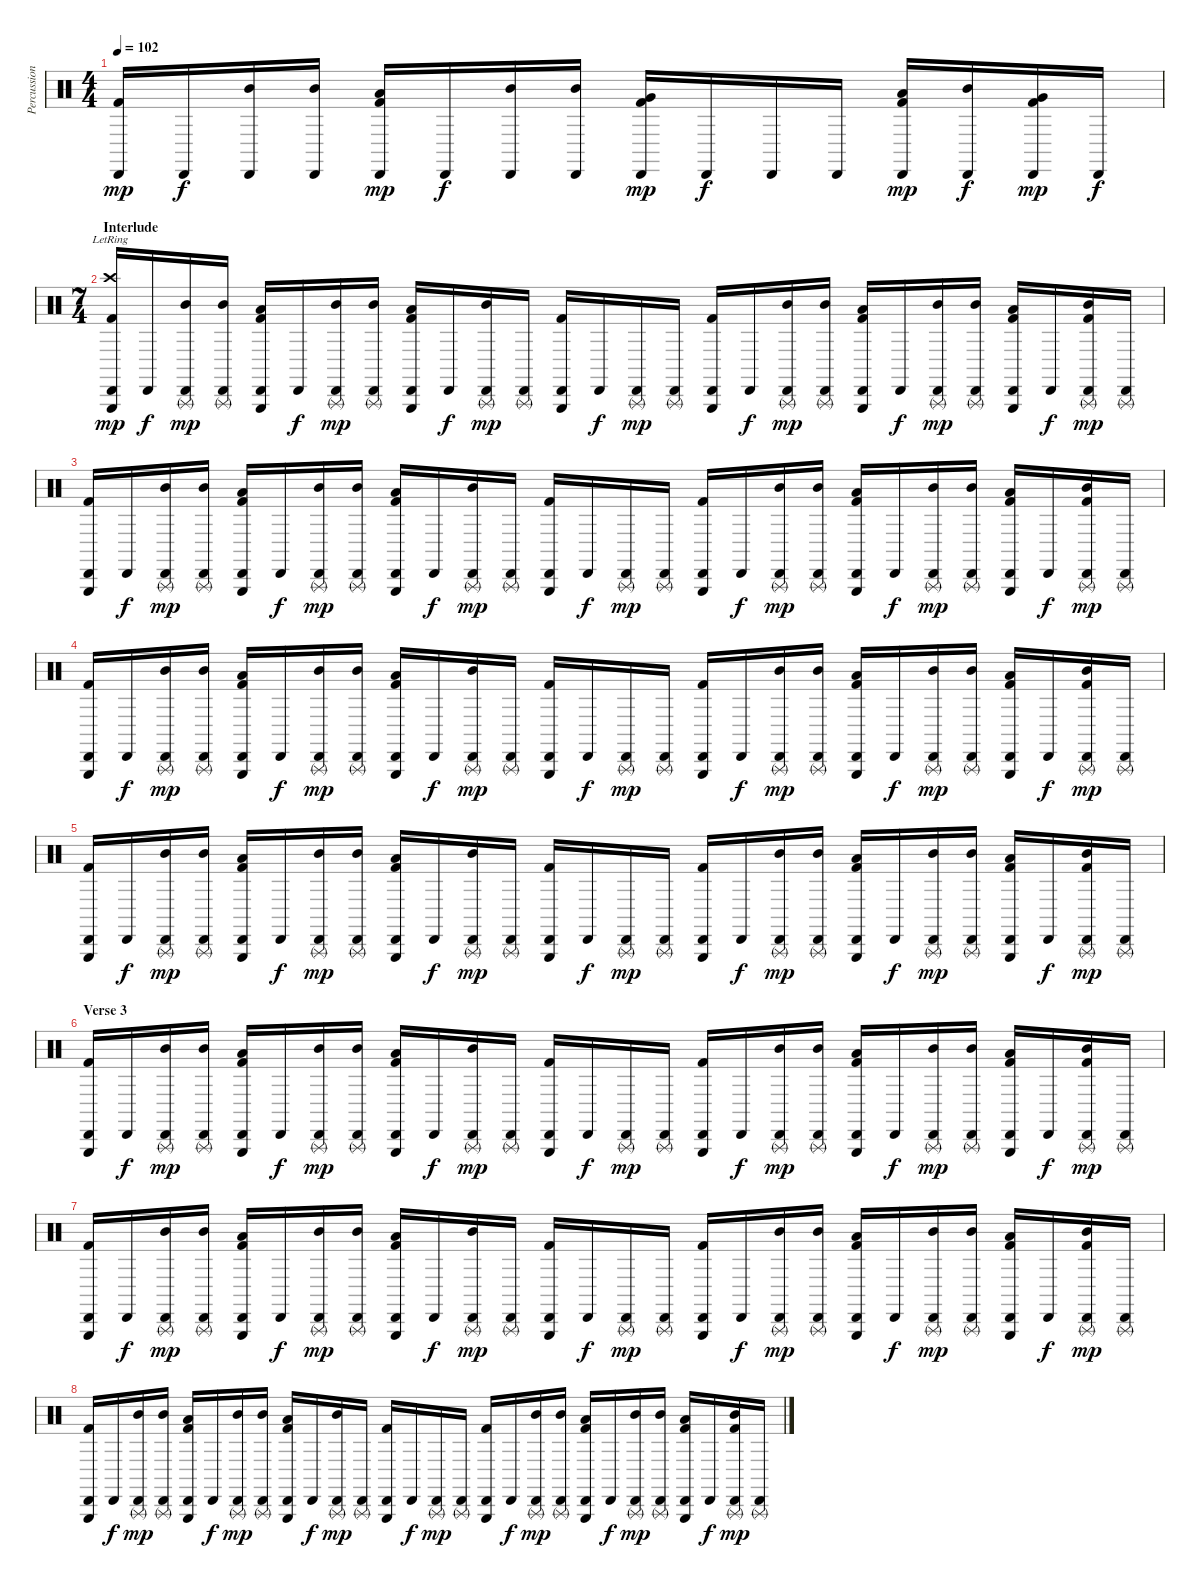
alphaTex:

\track ("Percussion" "Percussion") {instrument percussion}
\staff {score}
\articulation defaults
\ts (4 4)
\tempo 102
\clef neutral
\ks c
("Cabasa (hit)" "Kick (hit) 2").16{dy mp} "Cabasa (hit)".16{dy f} ("Cabasa (hit)" "Mid Tom (hit)").16 ("Cabasa (hit)" "Mid Tom (hit)").16 ("Cabasa (hit)" "Low Tom (hit)" "Kick (hit) 2").16{dy mp} "Cabasa (hit)".16{dy f} ("Cabasa (hit)" "Mid Tom (hit)").16 ("Cabasa (hit)" "Mid Tom (hit)").16 ("Cabasa (hit)" "Very Low Tom (hit)" "Kick (hit) 2").16{dy mp} "Cabasa (hit)".16{dy f} "Cabasa (hit)".16 "Cabasa (hit)".16 ("Cabasa (hit)" "Low Tom (hit)" "Kick (hit) 2").16{dy mp} ("Cabasa (hit)" "Mid Tom (hit)").16{dy f} ("Cabasa (hit)" "Very Low Tom (hit)" "Kick (hit) 2").16{dy mp} "Cabasa (hit)".16{dy f} |
\ts (7 4)
\section ("" "Interlude")
("Triangle (hit)" "Cabasa (hit)" "Crash high (hit)"{lr} "Kick (hit) 2").16{dy mp} "Cabasa (hit)".16{dy f} ("Triangle (rnute)" "Cabasa (hit)" "Mid Tom (hit)").16{dy mp} ("Triangle (rnute)" "Cabasa (hit)" "Mid Tom (hit)").16 ("Triangle (hit)" "Cabasa (hit)" "Low Tom (hit)" "Kick (hit) 2").16 "Cabasa (hit)".16{dy f} ("Triangle (rnute)" "Cabasa (hit)" "Mid Tom (hit)").16{dy mp} ("Triangle (rnute)" "Cabasa (hit)" "Mid Tom (hit)").16 ("Triangle (hit)" "Cabasa (hit)" "Low Tom (hit)" "Kick (hit) 2").16 "Cabasa (hit)".16{dy f} ("Triangle (rnute)" "Cabasa (hit)" "Mid Tom (hit)").16{dy mp} ("Triangle (rnute)" "Cabasa (hit)").16 ("Triangle (hit)" "Cabasa (hit)" "Kick (hit) 2").16 "Cabasa (hit)".16{dy f} ("Triangle (rnute)" "Cabasa (hit)").16{dy mp} ("Triangle (rnute)" "Cabasa (hit)").16 ("Triangle (hit)" "Cabasa (hit)" "Kick (hit) 2").16 "Cabasa (hit)".16{dy f} ("Triangle (rnute)" "Cabasa (hit)" "Mid Tom (hit)").16{dy mp} ("Triangle (rnute)" "Cabasa (hit)" "Mid Tom (hit)").16 ("Triangle (hit)" "Cabasa (hit)" "Low Tom (hit)" "Kick (hit) 2").16 "Cabasa (hit)".16{dy f} ("Triangle (rnute)" "Cabasa (hit)" "Mid Tom (hit)").16{dy mp} ("Triangle (rnute)" "Cabasa (hit)" "Mid Tom (hit)").16 ("Triangle (hit)" "Cabasa (hit)" "Low Tom (hit)" "Kick (hit) 2").16 "Cabasa (hit)".16{dy f} ("Triangle (rnute)" "Cabasa (hit)" "Mid Tom (hit)" "Kick (hit) 2").16{dy mp} ("Triangle (rnute)" "Cabasa (hit)").16 |
("Triangle (hit)" "Cabasa (hit)" "Kick (hit) 2").16 "Cabasa (hit)".16{dy f} ("Triangle (rnute)" "Cabasa (hit)" "Mid Tom (hit)").16{dy mp} ("Triangle (rnute)" "Cabasa (hit)" "Mid Tom (hit)").16 ("Triangle (hit)" "Cabasa (hit)" "Low Tom (hit)" "Kick (hit) 2").16 "Cabasa (hit)".16{dy f} ("Triangle (rnute)" "Cabasa (hit)" "Mid Tom (hit)").16{dy mp} ("Triangle (rnute)" "Cabasa (hit)" "Mid Tom (hit)").16 ("Triangle (hit)" "Cabasa (hit)" "Low Tom (hit)" "Kick (hit) 2").16 "Cabasa (hit)".16{dy f} ("Triangle (rnute)" "Cabasa (hit)" "Mid Tom (hit)").16{dy mp} ("Triangle (rnute)" "Cabasa (hit)").16 ("Triangle (hit)" "Cabasa (hit)" "Kick (hit) 2").16 "Cabasa (hit)".16{dy f} ("Triangle (rnute)" "Cabasa (hit)").16{dy mp} ("Triangle (rnute)" "Cabasa (hit)").16 ("Triangle (hit)" "Cabasa (hit)" "Kick (hit) 2").16 "Cabasa (hit)".16{dy f} ("Triangle (rnute)" "Cabasa (hit)" "Mid Tom (hit)").16{dy mp} ("Triangle (rnute)" "Cabasa (hit)" "Mid Tom (hit)").16 ("Triangle (hit)" "Cabasa (hit)" "Low Tom (hit)" "Kick (hit) 2").16 "Cabasa (hit)".16{dy f} ("Triangle (rnute)" "Cabasa (hit)" "Mid Tom (hit)").16{dy mp} ("Triangle (rnute)" "Cabasa (hit)" "Mid Tom (hit)").16 ("Triangle (hit)" "Cabasa (hit)" "Low Tom (hit)" "Kick (hit) 2").16 "Cabasa (hit)".16{dy f} ("Triangle (rnute)" "Cabasa (hit)" "Mid Tom (hit)" "Kick (hit) 2").16{dy mp} ("Triangle (rnute)" "Cabasa (hit)").16 |
("Triangle (hit)" "Cabasa (hit)" "Kick (hit) 2").16 "Cabasa (hit)".16{dy f} ("Triangle (rnute)" "Cabasa (hit)" "Mid Tom (hit)").16{dy mp} ("Triangle (rnute)" "Cabasa (hit)" "Mid Tom (hit)").16 ("Triangle (hit)" "Cabasa (hit)" "Low Tom (hit)" "Kick (hit) 2").16 "Cabasa (hit)".16{dy f} ("Triangle (rnute)" "Cabasa (hit)" "Mid Tom (hit)").16{dy mp} ("Triangle (rnute)" "Cabasa (hit)" "Mid Tom (hit)").16 ("Triangle (hit)" "Cabasa (hit)" "Low Tom (hit)" "Kick (hit) 2").16 "Cabasa (hit)".16{dy f} ("Triangle (rnute)" "Cabasa (hit)" "Mid Tom (hit)").16{dy mp} ("Triangle (rnute)" "Cabasa (hit)").16 ("Triangle (hit)" "Cabasa (hit)" "Kick (hit) 2").16 "Cabasa (hit)".16{dy f} ("Triangle (rnute)" "Cabasa (hit)").16{dy mp} ("Triangle (rnute)" "Cabasa (hit)").16 ("Triangle (hit)" "Cabasa (hit)" "Kick (hit) 2").16 "Cabasa (hit)".16{dy f} ("Triangle (rnute)" "Cabasa (hit)" "Mid Tom (hit)").16{dy mp} ("Triangle (rnute)" "Cabasa (hit)" "Mid Tom (hit)").16 ("Triangle (hit)" "Cabasa (hit)" "Low Tom (hit)" "Kick (hit) 2").16 "Cabasa (hit)".16{dy f} ("Triangle (rnute)" "Cabasa (hit)" "Mid Tom (hit)").16{dy mp} ("Triangle (rnute)" "Cabasa (hit)" "Mid Tom (hit)").16 ("Triangle (hit)" "Cabasa (hit)" "Low Tom (hit)" "Kick (hit) 2").16 "Cabasa (hit)".16{dy f} ("Triangle (rnute)" "Cabasa (hit)" "Mid Tom (hit)" "Kick (hit) 2").16{dy mp} ("Triangle (rnute)" "Cabasa (hit)").16 |
("Triangle (hit)" "Cabasa (hit)" "Kick (hit) 2").16 "Cabasa (hit)".16{dy f} ("Triangle (rnute)" "Cabasa (hit)" "Mid Tom (hit)").16{dy mp} ("Triangle (rnute)" "Cabasa (hit)" "Mid Tom (hit)").16 ("Triangle (hit)" "Cabasa (hit)" "Low Tom (hit)" "Kick (hit) 2").16 "Cabasa (hit)".16{dy f} ("Triangle (rnute)" "Cabasa (hit)" "Mid Tom (hit)").16{dy mp} ("Triangle (rnute)" "Cabasa (hit)" "Mid Tom (hit)").16 ("Triangle (hit)" "Cabasa (hit)" "Low Tom (hit)" "Kick (hit) 2").16 "Cabasa (hit)".16{dy f} ("Triangle (rnute)" "Cabasa (hit)" "Mid Tom (hit)").16{dy mp} ("Triangle (rnute)" "Cabasa (hit)").16 ("Triangle (hit)" "Cabasa (hit)" "Kick (hit) 2").16 "Cabasa (hit)".16{dy f} ("Triangle (rnute)" "Cabasa (hit)").16{dy mp} ("Triangle (rnute)" "Cabasa (hit)").16 ("Triangle (hit)" "Cabasa (hit)" "Kick (hit) 2").16 "Cabasa (hit)".16{dy f} ("Triangle (rnute)" "Cabasa (hit)" "Mid Tom (hit)").16{dy mp} ("Triangle (rnute)" "Cabasa (hit)" "Mid Tom (hit)").16 ("Triangle (hit)" "Cabasa (hit)" "Low Tom (hit)" "Kick (hit) 2").16 "Cabasa (hit)".16{dy f} ("Triangle (rnute)" "Cabasa (hit)" "Mid Tom (hit)").16{dy mp} ("Triangle (rnute)" "Cabasa (hit)" "Mid Tom (hit)").16 ("Triangle (hit)" "Cabasa (hit)" "Low Tom (hit)" "Kick (hit) 2").16 "Cabasa (hit)".16{dy f} ("Triangle (rnute)" "Cabasa (hit)" "Mid Tom (hit)" "Kick (hit) 2").16{dy mp} ("Triangle (rnute)" "Cabasa (hit)").16 |
\section ("" "Verse 3")
("Triangle (hit)" "Cabasa (hit)" "Kick (hit) 2").16 "Cabasa (hit)".16{dy f} ("Triangle (rnute)" "Cabasa (hit)" "Mid Tom (hit)").16{dy mp} ("Triangle (rnute)" "Cabasa (hit)" "Mid Tom (hit)").16 ("Triangle (hit)" "Cabasa (hit)" "Low Tom (hit)" "Kick (hit) 2").16 "Cabasa (hit)".16{dy f} ("Triangle (rnute)" "Cabasa (hit)" "Mid Tom (hit)").16{dy mp} ("Triangle (rnute)" "Cabasa (hit)" "Mid Tom (hit)").16 ("Triangle (hit)" "Cabasa (hit)" "Low Tom (hit)" "Kick (hit) 2").16 "Cabasa (hit)".16{dy f} ("Triangle (rnute)" "Cabasa (hit)" "Mid Tom (hit)").16{dy mp} ("Triangle (rnute)" "Cabasa (hit)").16 ("Triangle (hit)" "Cabasa (hit)" "Kick (hit) 2").16 "Cabasa (hit)".16{dy f} ("Triangle (rnute)" "Cabasa (hit)").16{dy mp} ("Triangle (rnute)" "Cabasa (hit)").16 ("Triangle (hit)" "Cabasa (hit)" "Kick (hit) 2").16 "Cabasa (hit)".16{dy f} ("Triangle (rnute)" "Cabasa (hit)" "Mid Tom (hit)").16{dy mp} ("Triangle (rnute)" "Cabasa (hit)" "Mid Tom (hit)").16 ("Triangle (hit)" "Cabasa (hit)" "Low Tom (hit)" "Kick (hit) 2").16 "Cabasa (hit)".16{dy f} ("Triangle (rnute)" "Cabasa (hit)" "Mid Tom (hit)").16{dy mp} ("Triangle (rnute)" "Cabasa (hit)" "Mid Tom (hit)").16 ("Triangle (hit)" "Cabasa (hit)" "Low Tom (hit)" "Kick (hit) 2").16 "Cabasa (hit)".16{dy f} ("Triangle (rnute)" "Cabasa (hit)" "Mid Tom (hit)" "Kick (hit) 2").16{dy mp} ("Triangle (rnute)" "Cabasa (hit)").16 |
("Triangle (hit)" "Cabasa (hit)" "Kick (hit) 2").16 "Cabasa (hit)".16{dy f} ("Triangle (rnute)" "Cabasa (hit)" "Mid Tom (hit)").16{dy mp} ("Triangle (rnute)" "Cabasa (hit)" "Mid Tom (hit)").16 ("Triangle (hit)" "Cabasa (hit)" "Low Tom (hit)" "Kick (hit) 2").16 "Cabasa (hit)".16{dy f} ("Triangle (rnute)" "Cabasa (hit)" "Mid Tom (hit)").16{dy mp} ("Triangle (rnute)" "Cabasa (hit)" "Mid Tom (hit)").16 ("Triangle (hit)" "Cabasa (hit)" "Low Tom (hit)" "Kick (hit) 2").16 "Cabasa (hit)".16{dy f} ("Triangle (rnute)" "Cabasa (hit)" "Mid Tom (hit)").16{dy mp} ("Triangle (rnute)" "Cabasa (hit)").16 ("Triangle (hit)" "Cabasa (hit)" "Kick (hit) 2").16 "Cabasa (hit)".16{dy f} ("Triangle (rnute)" "Cabasa (hit)").16{dy mp} ("Triangle (rnute)" "Cabasa (hit)").16 ("Triangle (hit)" "Cabasa (hit)" "Kick (hit) 2").16 "Cabasa (hit)".16{dy f} ("Triangle (rnute)" "Cabasa (hit)" "Mid Tom (hit)").16{dy mp} ("Triangle (rnute)" "Cabasa (hit)" "Mid Tom (hit)").16 ("Triangle (hit)" "Cabasa (hit)" "Low Tom (hit)" "Kick (hit) 2").16 "Cabasa (hit)".16{dy f} ("Triangle (rnute)" "Cabasa (hit)" "Mid Tom (hit)").16{dy mp} ("Triangle (rnute)" "Cabasa (hit)" "Mid Tom (hit)").16 ("Triangle (hit)" "Cabasa (hit)" "Low Tom (hit)" "Kick (hit) 2").16 "Cabasa (hit)".16{dy f} ("Triangle (rnute)" "Cabasa (hit)" "Mid Tom (hit)" "Kick (hit) 2").16{dy mp} ("Triangle (rnute)" "Cabasa (hit)").16 |
("Triangle (hit)" "Cabasa (hit)" "Kick (hit) 2").16 "Cabasa (hit)".16{dy f} ("Triangle (rnute)" "Cabasa (hit)" "Mid Tom (hit)").16{dy mp} ("Triangle (rnute)" "Cabasa (hit)" "Mid Tom (hit)").16 ("Triangle (hit)" "Cabasa (hit)" "Low Tom (hit)" "Kick (hit) 2").16 "Cabasa (hit)".16{dy f} ("Triangle (rnute)" "Cabasa (hit)" "Mid Tom (hit)").16{dy mp} ("Triangle (rnute)" "Cabasa (hit)" "Mid Tom (hit)").16 ("Triangle (hit)" "Cabasa (hit)" "Low Tom (hit)" "Kick (hit) 2").16 "Cabasa (hit)".16{dy f} ("Triangle (rnute)" "Cabasa (hit)" "Mid Tom (hit)").16{dy mp} ("Triangle (rnute)" "Cabasa (hit)").16 ("Triangle (hit)" "Cabasa (hit)" "Kick (hit) 2").16 "Cabasa (hit)".16{dy f} ("Triangle (rnute)" "Cabasa (hit)").16{dy mp} ("Triangle (rnute)" "Cabasa (hit)").16 ("Triangle (hit)" "Cabasa (hit)" "Kick (hit) 2").16 "Cabasa (hit)".16{dy f} ("Triangle (rnute)" "Cabasa (hit)" "Mid Tom (hit)").16{dy mp} ("Triangle (rnute)" "Cabasa (hit)" "Mid Tom (hit)").16 ("Triangle (hit)" "Cabasa (hit)" "Low Tom (hit)" "Kick (hit) 2").16 "Cabasa (hit)".16{dy f} ("Triangle (rnute)" "Cabasa (hit)" "Mid Tom (hit)").16{dy mp} ("Triangle (rnute)" "Cabasa (hit)" "Mid Tom (hit)").16 ("Triangle (hit)" "Cabasa (hit)" "Low Tom (hit)" "Kick (hit) 2").16 "Cabasa (hit)".16{dy f} ("Triangle (rnute)" "Cabasa (hit)" "Mid Tom (hit)" "Kick (hit) 2").16{dy mp} ("Triangle (rnute)" "Cabasa (hit)").16
